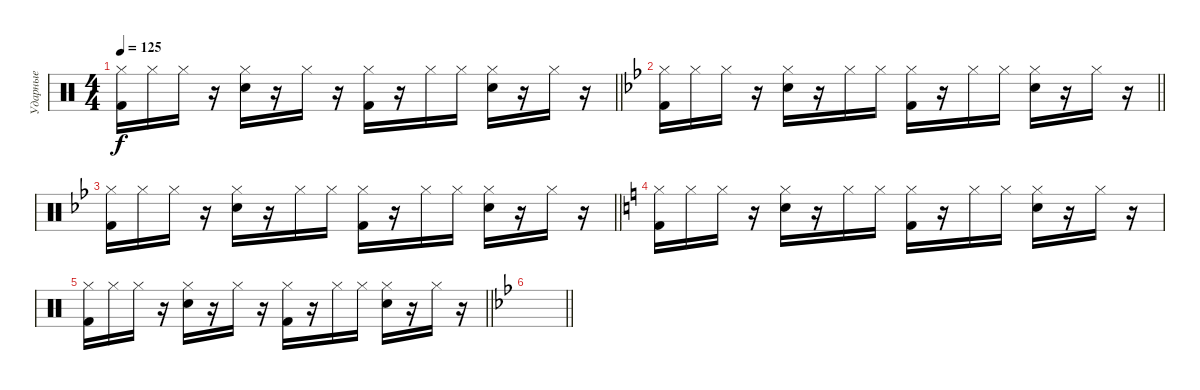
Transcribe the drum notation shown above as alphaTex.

\track ("Ударные" "Ударные") {instrument percussion}
\staff {score}
\articulation defaults
\ts (4 4)
\tempo 125
\clef neutral
\barLineRight lightlight
\ks c
("Kick (hit) 2" "Hi-Hat (closed)").16{dy f} "Hi-Hat (closed)".16 "Hi-Hat (closed)".16 r.16 ("Snare (hit) 2" "Hi-Hat (closed)").16 r.16 "Hi-Hat (closed)".16 r.16 ("Kick (hit) 2" "Hi-Hat (closed)").16 r.16 "Hi-Hat (closed)".16 "Hi-Hat (closed)".16 ("Snare (hit) 2" "Hi-Hat (closed)").16 r.16 "Hi-Hat (closed)".16 r.16 |
\barLineRight lightlight
\ks bb
("Kick (hit) 2" "Hi-Hat (closed)").16 "Hi-Hat (closed)".16 "Hi-Hat (closed)".16 r.16 ("Snare (hit) 2" "Hi-Hat (closed)").16 r.16 "Hi-Hat (closed)".16 "Hi-Hat (closed)".16 ("Kick (hit) 2" "Hi-Hat (closed)").16 r.16 "Hi-Hat (closed)".16 "Hi-Hat (closed)".16 ("Snare (hit) 2" "Hi-Hat (closed)").16 r.16 "Hi-Hat (closed)".16 r.16 |
\barLineRight lightlight
("Kick (hit) 2" "Hi-Hat (closed)").16 "Hi-Hat (closed)".16 "Hi-Hat (closed)".16 r.16 ("Snare (hit) 2" "Hi-Hat (closed)").16 r.16 "Hi-Hat (closed)".16 "Hi-Hat (closed)".16 ("Kick (hit) 2" "Hi-Hat (closed)").16 r.16 "Hi-Hat (closed)".16 "Hi-Hat (closed)".16 ("Snare (hit) 2" "Hi-Hat (closed)").16 r.16 "Hi-Hat (closed)".16 r.16 |
\ks c
("Kick (hit) 2" "Hi-Hat (closed)").16 "Hi-Hat (closed)".16 "Hi-Hat (closed)".16 r.16 ("Snare (hit) 2" "Hi-Hat (closed)").16 r.16 "Hi-Hat (closed)".16 "Hi-Hat (closed)".16 ("Kick (hit) 2" "Hi-Hat (closed)").16 r.16 "Hi-Hat (closed)".16 "Hi-Hat (closed)".16 ("Snare (hit) 2" "Hi-Hat (closed)").16 r.16 "Hi-Hat (closed)".16 r.16 |
\barLineRight lightlight
("Kick (hit) 2" "Hi-Hat (closed)").16 "Hi-Hat (closed)".16 "Hi-Hat (closed)".16 r.16 ("Snare (hit) 2" "Hi-Hat (closed)").16 r.16 "Hi-Hat (closed)".16 r.16 ("Kick (hit) 2" "Hi-Hat (closed)").16 r.16 "Hi-Hat (closed)".16 "Hi-Hat (closed)".16 ("Snare (hit) 2" "Hi-Hat (closed)").16 r.16 "Hi-Hat (closed)".16 r.16 |
\barLineRight lightlight
\ks bb
